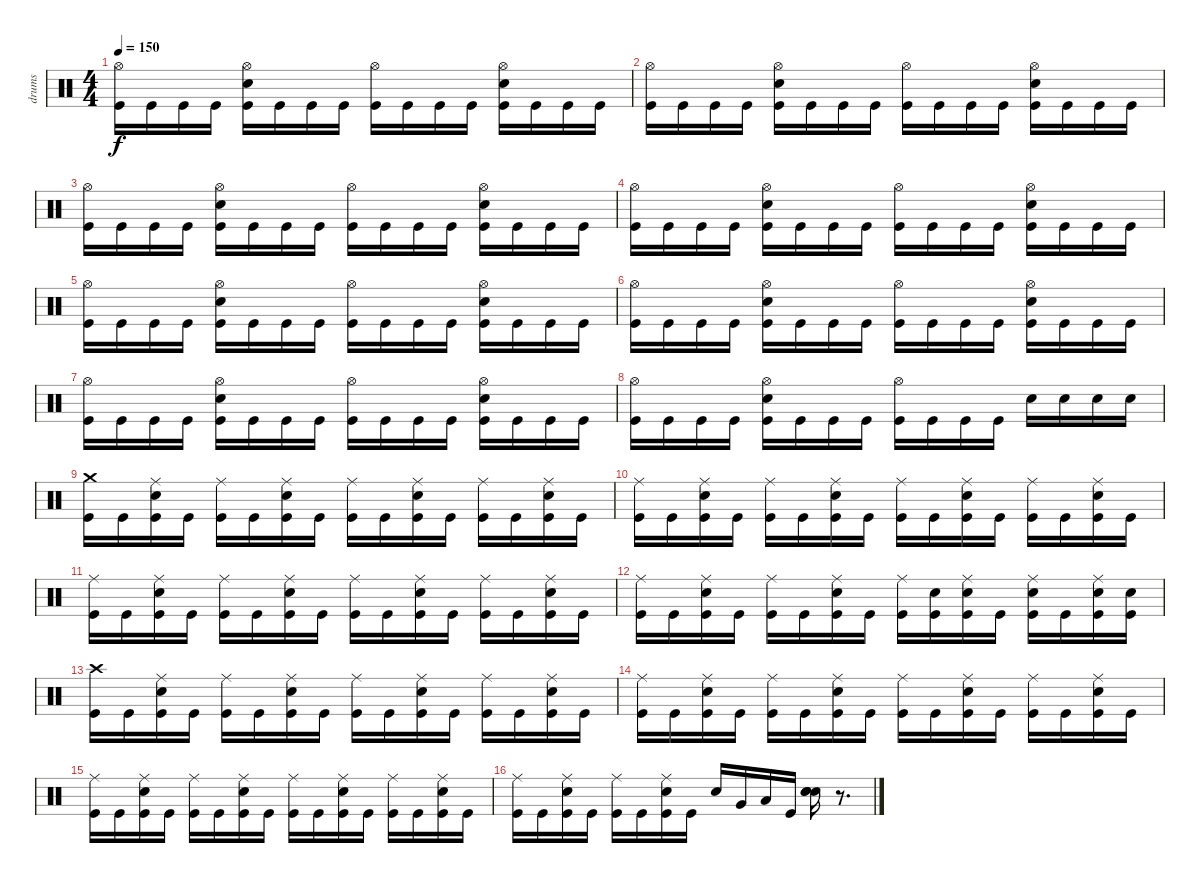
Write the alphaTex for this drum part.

\track ("drums" "drums") {instrument percussion}
\staff {score}
\articulation defaults
\ts (4 4)
\tempo 150
\clef neutral
\ks c
("Hi-Hat (open)" "Kick (hit)").16{dy f} "Kick (hit)".16 "Kick (hit)".16 "Kick (hit)".16 ("Hi-Hat (open)" "Electric Snare (hit)" "Kick (hit)").16 "Kick (hit)".16 "Kick (hit)".16 "Kick (hit)".16 ("Hi-Hat (open)" "Kick (hit)").16 "Kick (hit)".16 "Kick (hit)".16 "Kick (hit)".16 ("Hi-Hat (open)" "Electric Snare (hit)" "Kick (hit)").16 "Kick (hit)".16 "Kick (hit)".16 "Kick (hit)".16 |
("Hi-Hat (open)" "Kick (hit)").16 "Kick (hit)".16 "Kick (hit)".16 "Kick (hit)".16 ("Hi-Hat (open)" "Electric Snare (hit)" "Kick (hit)").16 "Kick (hit)".16 "Kick (hit)".16 "Kick (hit)".16 ("Hi-Hat (open)" "Kick (hit)").16 "Kick (hit)".16 "Kick (hit)".16 "Kick (hit)".16 ("Hi-Hat (open)" "Electric Snare (hit)" "Kick (hit)").16 "Kick (hit)".16 "Kick (hit)".16 "Kick (hit)".16 |
("Hi-Hat (open)" "Kick (hit)").16 "Kick (hit)".16 "Kick (hit)".16 "Kick (hit)".16 ("Hi-Hat (open)" "Electric Snare (hit)" "Kick (hit)").16 "Kick (hit)".16 "Kick (hit)".16 "Kick (hit)".16 ("Hi-Hat (open)" "Kick (hit)").16 "Kick (hit)".16 "Kick (hit)".16 "Kick (hit)".16 ("Hi-Hat (open)" "Electric Snare (hit)" "Kick (hit)").16 "Kick (hit)".16 "Kick (hit)".16 "Kick (hit)".16 |
("Hi-Hat (open)" "Kick (hit)").16 "Kick (hit)".16 "Kick (hit)".16 "Kick (hit)".16 ("Hi-Hat (open)" "Electric Snare (hit)" "Kick (hit)").16 "Kick (hit)".16 "Kick (hit)".16 "Kick (hit)".16 ("Hi-Hat (open)" "Kick (hit)").16 "Kick (hit)".16 "Kick (hit)".16 "Kick (hit)".16 ("Hi-Hat (open)" "Electric Snare (hit)" "Kick (hit)").16 "Kick (hit)".16 "Kick (hit)".16 "Kick (hit)".16 |
("Hi-Hat (open)" "Kick (hit)").16 "Kick (hit)".16 "Kick (hit)".16 "Kick (hit)".16 ("Hi-Hat (open)" "Electric Snare (hit)" "Kick (hit)").16 "Kick (hit)".16 "Kick (hit)".16 "Kick (hit)".16 ("Hi-Hat (open)" "Kick (hit)").16 "Kick (hit)".16 "Kick (hit)".16 "Kick (hit)".16 ("Hi-Hat (open)" "Electric Snare (hit)" "Kick (hit)").16 "Kick (hit)".16 "Kick (hit)".16 "Kick (hit)".16 |
("Hi-Hat (open)" "Kick (hit)").16 "Kick (hit)".16 "Kick (hit)".16 "Kick (hit)".16 ("Hi-Hat (open)" "Electric Snare (hit)" "Kick (hit)").16 "Kick (hit)".16 "Kick (hit)".16 "Kick (hit)".16 ("Hi-Hat (open)" "Kick (hit)").16 "Kick (hit)".16 "Kick (hit)".16 "Kick (hit)".16 ("Hi-Hat (open)" "Electric Snare (hit)" "Kick (hit)").16 "Kick (hit)".16 "Kick (hit)".16 "Kick (hit)".16 |
("Hi-Hat (open)" "Kick (hit)").16 "Kick (hit)".16 "Kick (hit)".16 "Kick (hit)".16 ("Hi-Hat (open)" "Electric Snare (hit)" "Kick (hit)").16 "Kick (hit)".16 "Kick (hit)".16 "Kick (hit)".16 ("Hi-Hat (open)" "Kick (hit)").16 "Kick (hit)".16 "Kick (hit)".16 "Kick (hit)".16 ("Hi-Hat (open)" "Electric Snare (hit)" "Kick (hit)").16 "Kick (hit)".16 "Kick (hit)".16 "Kick (hit)".16 |
("Hi-Hat (open)" "Kick (hit)").16 "Kick (hit)".16 "Kick (hit)".16 "Kick (hit)".16 ("Hi-Hat (open)" "Electric Snare (hit)" "Kick (hit)").16 "Kick (hit)".16 "Kick (hit)".16 "Kick (hit)".16 ("Hi-Hat (open)" "Kick (hit)").16 "Kick (hit)".16 "Kick (hit)".16 "Kick (hit)".16 "Electric Snare (hit)".16 "Electric Snare (hit)".16 "Electric Snare (hit)".16 "Electric Snare (hit)".16 |
("Crash medium (hit)" "Kick (hit)").16 "Kick (hit)".16 ("Ride (middle)" "Kick (hit)" "Electric Snare (hit)").16 "Kick (hit)".16 ("Ride (middle)" "Kick (hit)").16 "Kick (hit)".16 ("Ride (middle)" "Kick (hit)" "Electric Snare (hit)").16 "Kick (hit)".16 ("Ride (middle)" "Kick (hit)").16 "Kick (hit)".16 ("Ride (middle)" "Electric Snare (hit)" "Kick (hit)").16 "Kick (hit)".16 ("Ride (middle)" "Kick (hit)").16 "Kick (hit)".16 ("Ride (middle)" "Kick (hit)" "Electric Snare (hit)").16 "Kick (hit)".16 |
("Ride (middle)" "Kick (hit)").16 "Kick (hit)".16 ("Ride (middle)" "Kick (hit)" "Electric Snare (hit)").16 "Kick (hit)".16 ("Ride (middle)" "Kick (hit)").16 "Kick (hit)".16 ("Ride (middle)" "Kick (hit)" "Electric Snare (hit)").16 "Kick (hit)".16 ("Ride (middle)" "Kick (hit)").16 "Kick (hit)".16 ("Ride (middle)" "Electric Snare (hit)" "Kick (hit)").16 "Kick (hit)".16 ("Ride (middle)" "Kick (hit)").16 "Kick (hit)".16 ("Ride (middle)" "Kick (hit)" "Electric Snare (hit)").16 "Kick (hit)".16 |
("Ride (middle)" "Kick (hit)").16 "Kick (hit)".16 ("Ride (middle)" "Kick (hit)" "Electric Snare (hit)").16 "Kick (hit)".16 ("Ride (middle)" "Kick (hit)").16 "Kick (hit)".16 ("Ride (middle)" "Kick (hit)" "Electric Snare (hit)").16 "Kick (hit)".16 ("Ride (middle)" "Kick (hit)").16 "Kick (hit)".16 ("Ride (middle)" "Electric Snare (hit)" "Kick (hit)").16 "Kick (hit)".16 ("Ride (middle)" "Kick (hit)").16 "Kick (hit)".16 ("Ride (middle)" "Kick (hit)" "Electric Snare (hit)").16 "Kick (hit)".16 |
("Ride (middle)" "Kick (hit)").16 "Kick (hit)".16 ("Ride (middle)" "Kick (hit)" "Electric Snare (hit)").16 "Kick (hit)".16 ("Ride (middle)" "Kick (hit)").16 "Kick (hit)".16 ("Ride (middle)" "Kick (hit)" "Electric Snare (hit)").16 "Kick (hit)".16 ("Ride (middle)" "Kick (hit)").16 ("Kick (hit)" "Electric Snare (hit)").16 ("Ride (middle)" "Electric Snare (hit)" "Kick (hit)").16 "Kick (hit)".16 ("Electric Snare (hit)" "Ride (middle)" "Kick (hit)").16 "Kick (hit)".16 ("Ride (middle)" "Kick (hit)" "Electric Snare (hit)").16 ("Electric Snare (hit)" "Kick (hit)").16 |
("Crash high (hit)" "Kick (hit)").16 "Kick (hit)".16 ("Ride (middle)" "Kick (hit)" "Electric Snare (hit)").16 "Kick (hit)".16 ("Ride (middle)" "Kick (hit)").16 "Kick (hit)".16 ("Ride (middle)" "Kick (hit)" "Electric Snare (hit)").16 "Kick (hit)".16 ("Ride (middle)" "Kick (hit)").16 "Kick (hit)".16 ("Ride (middle)" "Electric Snare (hit)" "Kick (hit)").16 "Kick (hit)".16 ("Ride (middle)" "Kick (hit)").16 "Kick (hit)".16 ("Ride (middle)" "Kick (hit)" "Electric Snare (hit)").16 "Kick (hit)".16 |
("Ride (middle)" "Kick (hit)").16 "Kick (hit)".16 ("Ride (middle)" "Kick (hit)" "Electric Snare (hit)").16 "Kick (hit)".16 ("Ride (middle)" "Kick (hit)").16 "Kick (hit)".16 ("Ride (middle)" "Kick (hit)" "Electric Snare (hit)").16 "Kick (hit)".16 ("Ride (middle)" "Kick (hit)").16 "Kick (hit)".16 ("Ride (middle)" "Electric Snare (hit)" "Kick (hit)").16 "Kick (hit)".16 ("Ride (middle)" "Kick (hit)").16 "Kick (hit)".16 ("Ride (middle)" "Kick (hit)" "Electric Snare (hit)").16 "Kick (hit)".16 |
("Ride (middle)" "Kick (hit)").16 "Kick (hit)".16 ("Ride (middle)" "Kick (hit)" "Electric Snare (hit)").16 "Kick (hit)".16 ("Ride (middle)" "Kick (hit)").16 "Kick (hit)".16 ("Ride (middle)" "Kick (hit)" "Electric Snare (hit)").16 "Kick (hit)".16 ("Ride (middle)" "Kick (hit)").16 "Kick (hit)".16 ("Ride (middle)" "Electric Snare (hit)" "Kick (hit)").16 "Kick (hit)".16 ("Ride (middle)" "Kick (hit)").16 "Kick (hit)".16 ("Ride (middle)" "Kick (hit)" "Electric Snare (hit)").16 "Kick (hit)".16 |
("Ride (middle)" "Kick (hit)").16 "Kick (hit)".16 ("Ride (middle)" "Kick (hit)" "Electric Snare (hit)").16 "Kick (hit)".16 ("Ride (middle)" "Kick (hit)").16 "Kick (hit)".16 ("Ride (middle)" "Kick (hit)" "Electric Snare (hit)").16 "Kick (hit)".16 "Electric Snare (hit)".16 "Very Low Tom (hit)".16 "Low Floor Tom (hit)".16 "Kick (hit)".16 ("Electric Snare (hit)" "Electric Snare (hit)" "Snare (hit) 2").16 r.8{d}
